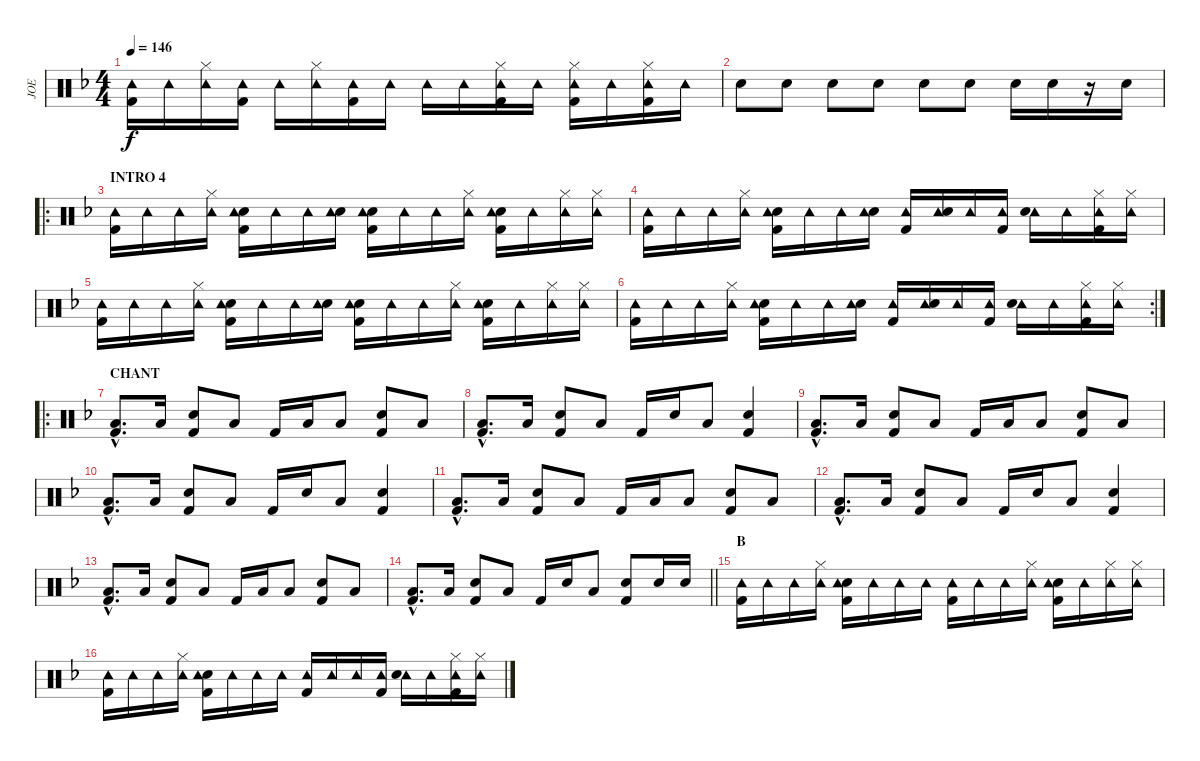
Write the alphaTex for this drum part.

\track ("JOE" "JOE") {instrument percussion}
\staff {score}
\articulation defaults
\ts (4 4)
\tempo 146
\clef neutral
\ks dminor
("Tambourine (hit)" "Kick (hit) 2").16{dy f} "Tambourine (hit)".16 ("Hi-Hat (closed)" "Tambourine (hit)").16 ("Tambourine (hit)" "Kick (hit) 2").16 "Tambourine (hit)".16 ("Hi-Hat (closed)" "Tambourine (hit)").16 ("Tambourine (hit)" "Kick (hit) 2").16 "Tambourine (hit)".16 "Tambourine (hit)".16 "Tambourine (hit)".16 ("Hi-Hat (closed)" "Tambourine (hit)" "Kick (hit) 2").16 "Tambourine (hit)".16 ("Hi-Hat (closed)" "Tambourine (hit)" "Kick (hit) 2").16 "Tambourine (hit)".16 ("Hi-Hat (closed)" "Tambourine (hit)" "Kick (hit) 2").16 "Tambourine (hit)".16 |
"Hand Clap (hit)".8 "Hand Clap (hit)".8 "Hand Clap (hit)".8 "Hand Clap (hit)".8 "Hand Clap (hit)".8 "Hand Clap (hit)".8 "Hand Clap (hit)".16 "Hand Clap (hit)".16 r.16 "Hand Clap (hit)".16 |
\ro
\section ("" "INTRO 4")
("Tambourine (hit)" "Kick (hit) 2").16 "Tambourine (hit)".16 "Tambourine (hit)".16 ("Hi-Hat (closed)" "Tambourine (hit)").16 ("Snare (hit) 2" "Tambourine (hit)" "Kick (hit) 2").16 "Tambourine (hit)".16 "Tambourine (hit)".16 ("Snare (hit) 2" "Tambourine (hit)").16 ("Snare (hit) 2" "Tambourine (hit)" "Kick (hit) 2").16 "Tambourine (hit)".16 "Tambourine (hit)".16 ("Hi-Hat (closed)" "Tambourine (hit)").16 ("Snare (hit) 2" "Tambourine (hit)" "Kick (hit) 2").16 "Tambourine (hit)".16 ("Hi-Hat (closed)" "Tambourine (hit)").16 ("Hi-Hat (closed)" "Tambourine (hit)").16 |
("Tambourine (hit)" "Kick (hit) 2").16 "Tambourine (hit)".16 "Tambourine (hit)".16 ("Hi-Hat (closed)" "Tambourine (hit)").16 ("Snare (hit) 2" "Tambourine (hit)" "Kick (hit) 2").16 "Tambourine (hit)".16 "Tambourine (hit)".16 ("Snare (hit) 2" "Tambourine (hit)").16 ("Tambourine (hit)" "Kick (hit) 2").16 ("Tambourine (hit)" "Snare (hit) 2").16 "Tambourine (hit)".16 ("Tambourine (hit)" "Kick (hit) 2").16 ("Tambourine (hit)" "Snare (hit) 2").16 "Tambourine (hit)".16 ("Hi-Hat (closed)" "Tambourine (hit)" "Kick (hit) 2").16 ("Hi-Hat (closed)" "Tambourine (hit)").16 |
("Tambourine (hit)" "Kick (hit) 2").16 "Tambourine (hit)".16 "Tambourine (hit)".16 ("Hi-Hat (closed)" "Tambourine (hit)").16 ("Snare (hit) 2" "Tambourine (hit)" "Kick (hit) 2").16 "Tambourine (hit)".16 "Tambourine (hit)".16 ("Snare (hit) 2" "Tambourine (hit)").16 ("Snare (hit) 2" "Tambourine (hit)" "Kick (hit) 2").16 "Tambourine (hit)".16 "Tambourine (hit)".16 ("Hi-Hat (closed)" "Tambourine (hit)").16 ("Snare (hit) 2" "Tambourine (hit)" "Kick (hit) 2").16 "Tambourine (hit)".16 ("Hi-Hat (closed)" "Tambourine (hit)").16 ("Hi-Hat (closed)" "Tambourine (hit)").16 |
\rc 2
("Tambourine (hit)" "Kick (hit) 2").16 "Tambourine (hit)".16 "Tambourine (hit)".16 ("Hi-Hat (closed)" "Tambourine (hit)").16 ("Snare (hit) 2" "Tambourine (hit)" "Kick (hit) 2").16 "Tambourine (hit)".16 "Tambourine (hit)".16 ("Snare (hit) 2" "Tambourine (hit)").16 ("Tambourine (hit)" "Kick (hit) 2").16 ("Tambourine (hit)" "Snare (hit) 2").16 "Tambourine (hit)".16 ("Tambourine (hit)" "Kick (hit) 2").16 ("Tambourine (hit)" "Snare (hit) 2").16 "Tambourine (hit)".16 ("Hi-Hat (closed)" "Tambourine (hit)" "Kick (hit) 2").16 ("Hi-Hat (closed)" "Tambourine (hit)").16 |
\ro
\section ("" "CHANT")
("Low Floor Tom (hit)"{hac} "Kick (hit) 2"{hac}).8{d} "Low Floor Tom (hit)".16 ("Snare (hit) 2" "Kick (hit) 2").8 "Low Floor Tom (hit)".8 "Kick (hit) 2".16 "Low Floor Tom (hit)".16 "Low Floor Tom (hit)".8 ("Snare (hit) 2" "Kick (hit) 2").8 "Low Floor Tom (hit)".8 |
("Low Floor Tom (hit)"{hac} "Kick (hit) 2"{hac}).8{d} "Low Floor Tom (hit)".16 ("Snare (hit) 2" "Kick (hit) 2").8 "Low Floor Tom (hit)".8 "Kick (hit) 2".16 "Snare (hit) 2".16 "Low Floor Tom (hit)".8 ("Snare (hit) 2" "Kick (hit) 2").4 |
("Low Floor Tom (hit)"{hac} "Kick (hit) 2"{hac}).8{d} "Low Floor Tom (hit)".16 ("Snare (hit) 2" "Kick (hit) 2").8 "Low Floor Tom (hit)".8 "Kick (hit) 2".16 "Low Floor Tom (hit)".16 "Low Floor Tom (hit)".8 ("Snare (hit) 2" "Kick (hit) 2").8 "Low Floor Tom (hit)".8 |
("Low Floor Tom (hit)"{hac} "Kick (hit) 2"{hac}).8{d} "Low Floor Tom (hit)".16 ("Snare (hit) 2" "Kick (hit) 2").8 "Low Floor Tom (hit)".8 "Kick (hit) 2".16 "Snare (hit) 2".16 "Low Floor Tom (hit)".8 ("Snare (hit) 2" "Kick (hit) 2").4 |
("Low Floor Tom (hit)"{hac} "Kick (hit) 2"{hac}).8{d} "Low Floor Tom (hit)".16 ("Snare (hit) 2" "Kick (hit) 2").8 "Low Floor Tom (hit)".8 "Kick (hit) 2".16 "Low Floor Tom (hit)".16 "Low Floor Tom (hit)".8 ("Snare (hit) 2" "Kick (hit) 2").8 "Low Floor Tom (hit)".8 |
("Low Floor Tom (hit)"{hac} "Kick (hit) 2"{hac}).8{d} "Low Floor Tom (hit)".16 ("Snare (hit) 2" "Kick (hit) 2").8 "Low Floor Tom (hit)".8 "Kick (hit) 2".16 "Snare (hit) 2".16 "Low Floor Tom (hit)".8 ("Snare (hit) 2" "Kick (hit) 2").4 |
("Low Floor Tom (hit)"{hac} "Kick (hit) 2"{hac}).8{d} "Low Floor Tom (hit)".16 ("Snare (hit) 2" "Kick (hit) 2").8 "Low Floor Tom (hit)".8 "Kick (hit) 2".16 "Low Floor Tom (hit)".16 "Low Floor Tom (hit)".8 ("Snare (hit) 2" "Kick (hit) 2").8 "Low Floor Tom (hit)".8 |
\barLineRight lightlight
("Low Floor Tom (hit)"{hac} "Kick (hit) 2"{hac}).8{d} "Low Floor Tom (hit)".16 ("Snare (hit) 2" "Kick (hit) 2").8 "Low Floor Tom (hit)".8 "Kick (hit) 2".16 "Snare (hit) 2".16 "Low Floor Tom (hit)".8 ("Snare (hit) 2" "Kick (hit) 2").8 "Snare (hit) 2".16 "Snare (hit) 2".16 |
\section ("" "B")
("Tambourine (hit)" "Kick (hit) 2").16 "Tambourine (hit)".16 "Tambourine (hit)".16 ("Hi-Hat (closed)" "Tambourine (hit)").16 ("Snare (hit) 2" "Tambourine (hit)" "Kick (hit) 2").16 "Tambourine (hit)".16 "Tambourine (hit)".16 "Tambourine (hit)".16 ("Tambourine (hit)" "Kick (hit) 2").16 "Tambourine (hit)".16 "Tambourine (hit)".16 ("Hi-Hat (closed)" "Tambourine (hit)").16 ("Snare (hit) 2" "Tambourine (hit)" "Kick (hit) 2").16 "Tambourine (hit)".16 ("Hi-Hat (closed)" "Tambourine (hit)").16 ("Hi-Hat (closed)" "Tambourine (hit)").16 |
("Tambourine (hit)" "Kick (hit) 2").16 "Tambourine (hit)".16 "Tambourine (hit)".16 ("Hi-Hat (closed)" "Tambourine (hit)").16 ("Snare (hit) 2" "Tambourine (hit)" "Kick (hit) 2").16 "Tambourine (hit)".16 "Tambourine (hit)".16 "Tambourine (hit)".16 ("Tambourine (hit)" "Kick (hit) 2").16 "Tambourine (hit)".16 "Tambourine (hit)".16 ("Tambourine (hit)" "Kick (hit) 2").16 ("Tambourine (hit)" "Snare (hit) 2").16 "Tambourine (hit)".16 ("Hi-Hat (closed)" "Tambourine (hit)" "Kick (hit) 2").16 ("Hi-Hat (closed)" "Tambourine (hit)").16
